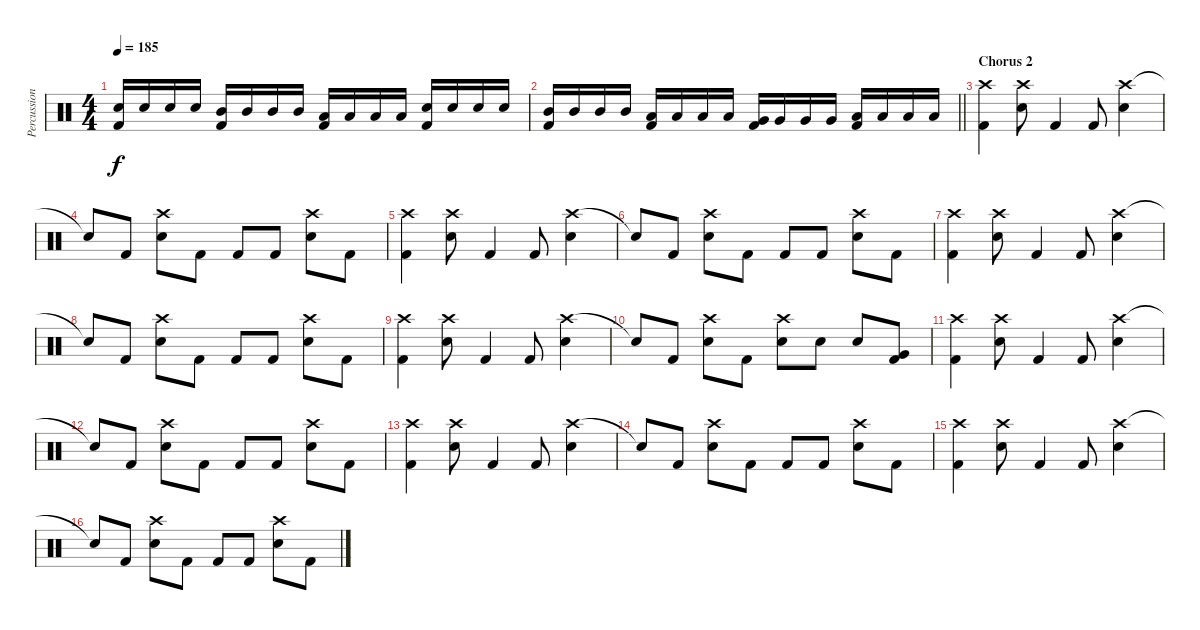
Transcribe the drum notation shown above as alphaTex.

\track ("Percussion" "Percussion") {instrument percussion}
\staff {score}
\articulation defaults
\ts (4 4)
\tempo 185
\clef neutral
\ks c
("Snare (hit) 2" "Kick (hit) 2").16{dy f} "Snare (hit) 2".16 "Snare (hit) 2".16 "Snare (hit) 2".16 ("Mid Tom (hit)" "Kick (hit) 2").16 "Mid Tom (hit)".16 "Mid Tom (hit)".16 "Mid Tom (hit)".16 ("Low Tom (hit)" "Kick (hit) 2").16 "Low Tom (hit)".16 "Low Tom (hit)".16 "Low Tom (hit)".16 ("Snare (hit) 2" "Kick (hit) 2").16 "Snare (hit) 2".16 "Snare (hit) 2".16 "Snare (hit) 2".16 |
\barLineRight lightlight
("Mid Tom (hit)" "Kick (hit) 2").16 "Mid Tom (hit)".16 "Mid Tom (hit)".16 "Mid Tom (hit)".16 ("Low Tom (hit)" "Kick (hit) 2").16 "Low Tom (hit)".16 "Low Tom (hit)".16 "Low Tom (hit)".16 ("Very Low Tom (hit)" "Kick (hit) 2").16 "Very Low Tom (hit)".16 "Very Low Tom (hit)".16 "Very Low Tom (hit)".16 ("Low Floor Tom (hit)" "Kick (hit) 2").16 "Low Floor Tom (hit)".16 "Low Floor Tom (hit)".16 "Low Floor Tom (hit)".16 |
\section ("" "Chorus 2")
("Crash high (hit)" "Kick (hit) 2").4 ("Crash high (hit)" "Snare (hit) 2").8 "Kick (hit) 2".4 "Kick (hit) 2".8 ("Crash high (hit)" "Snare (hit) 2").4 |
"Snare (hit)"{t}.8 "Kick (hit) 2".8 ("Crash high (hit)" "Snare (hit) 2").8 "Kick (hit) 2".8 "Kick (hit) 2".8 "Kick (hit) 2".8 ("Crash high (hit)" "Snare (hit) 2").8 "Kick (hit) 2".8 |
("Crash high (hit)" "Kick (hit) 2").4 ("Crash high (hit)" "Snare (hit) 2").8 "Kick (hit) 2".4 "Kick (hit) 2".8 ("Crash high (hit)" "Snare (hit) 2").4 |
"Snare (hit)"{t}.8 "Kick (hit) 2".8 ("Crash high (hit)" "Snare (hit) 2").8 "Kick (hit) 2".8 "Kick (hit) 2".8 "Kick (hit) 2".8 ("Crash high (hit)" "Snare (hit) 2").8 "Kick (hit) 2".8 |
("Crash high (hit)" "Kick (hit) 2").4 ("Crash high (hit)" "Snare (hit) 2").8 "Kick (hit) 2".4 "Kick (hit) 2".8 ("Crash high (hit)" "Snare (hit) 2").4 |
"Snare (hit)"{t}.8 "Kick (hit) 2".8 ("Crash high (hit)" "Snare (hit) 2").8 "Kick (hit) 2".8 "Kick (hit) 2".8 "Kick (hit) 2".8 ("Crash high (hit)" "Snare (hit) 2").8 "Kick (hit) 2".8 |
("Crash high (hit)" "Kick (hit) 2").4 ("Crash high (hit)" "Snare (hit) 2").8 "Kick (hit) 2".4 "Kick (hit) 2".8 ("Crash high (hit)" "Snare (hit) 2").4 |
"Snare (hit)"{t}.8 "Kick (hit) 2".8 ("Crash high (hit)" "Snare (hit) 2").8 "Kick (hit) 2".8 ("Crash high (hit)" "Snare (hit) 2").8 "Snare (hit) 2".8 "Snare (hit) 2".8 ("Very Low Tom (hit)" "Kick (hit) 2").8 |
("Crash high (hit)" "Kick (hit) 2").4 ("Crash high (hit)" "Snare (hit) 2").8 "Kick (hit) 2".4 "Kick (hit) 2".8 ("Crash high (hit)" "Snare (hit) 2").4 |
"Snare (hit)"{t}.8 "Kick (hit) 2".8 ("Crash high (hit)" "Snare (hit) 2").8 "Kick (hit) 2".8 "Kick (hit) 2".8 "Kick (hit) 2".8 ("Crash high (hit)" "Snare (hit) 2").8 "Kick (hit) 2".8 |
("Crash high (hit)" "Kick (hit) 2").4 ("Crash high (hit)" "Snare (hit) 2").8 "Kick (hit) 2".4 "Kick (hit) 2".8 ("Crash high (hit)" "Snare (hit) 2").4 |
"Snare (hit)"{t}.8 "Kick (hit) 2".8 ("Crash high (hit)" "Snare (hit) 2").8 "Kick (hit) 2".8 "Kick (hit) 2".8 "Kick (hit) 2".8 ("Crash high (hit)" "Snare (hit) 2").8 "Kick (hit) 2".8 |
("Crash high (hit)" "Kick (hit) 2").4 ("Crash high (hit)" "Snare (hit) 2").8 "Kick (hit) 2".4 "Kick (hit) 2".8 ("Crash high (hit)" "Snare (hit) 2").4 |
"Snare (hit)"{t}.8 "Kick (hit) 2".8 ("Crash high (hit)" "Snare (hit) 2").8 "Kick (hit) 2".8 "Kick (hit) 2".8 "Kick (hit) 2".8 ("Crash high (hit)" "Snare (hit) 2").8 "Kick (hit) 2".8
